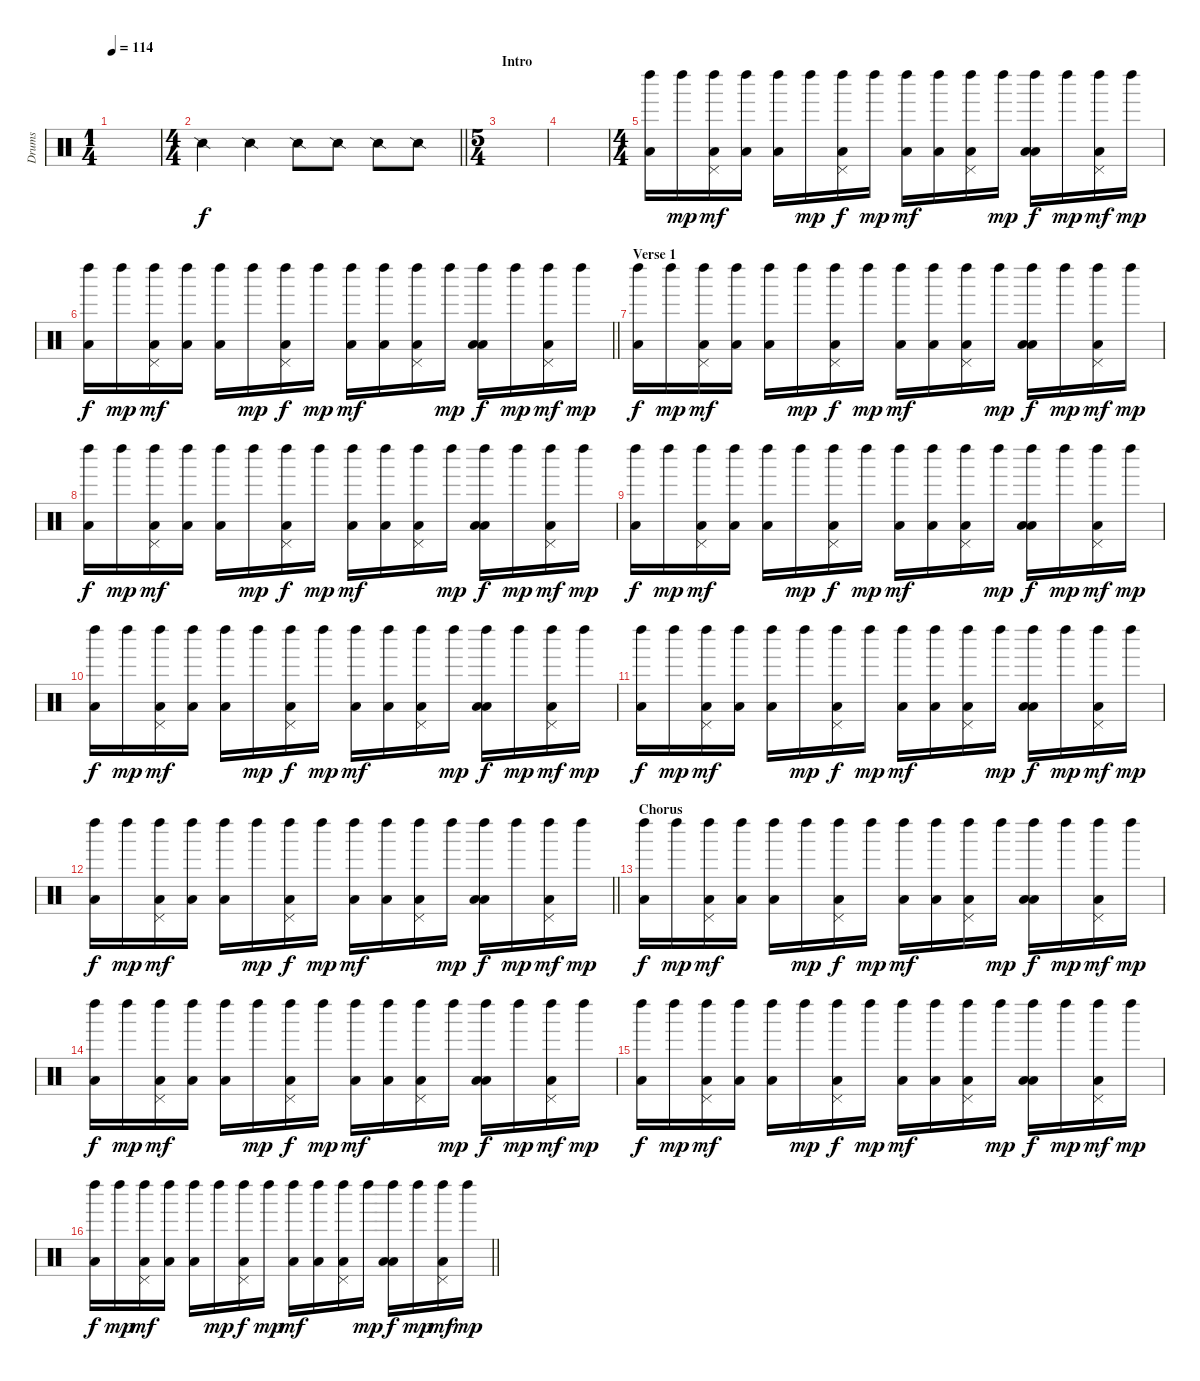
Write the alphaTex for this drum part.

\track ("Drums" "Drums") {instrument percussion}
\staff {score}
\articulation defaults
\ts (1 4)
\tempo 114
\clef neutral
\ks c
|
\ts (4 4)
\barLineRight lightlight "Snare (side stick) 2".4 "Snare (side stick) 2".4 "Snare (side stick) 2".8 "Snare (side stick) 2".8 "Snare (side stick) 2".8 "Snare (side stick) 2".8
|
\ts (5 4)
\section ("" "Intro")
|
|
\ts (4 4)
("Left Maraca (hit)" "Low Floor Tom (hit)").16 "Left Maraca (hit)".16{dy mp} ("Pedal Hi-Hat (hit)" "Left Maraca (hit)" "Low Floor Tom (hit)").16{dy mf} ("Left Maraca (hit)" "Low Tom (hit)").16 ("Left Maraca (hit)" "Low Floor Tom (hit)").16 "Left Maraca (hit)".16{dy mp} ("Pedal Hi-Hat (hit)" "Left Maraca (hit)" "Low Floor Tom (hit)").16{dy f} "Left Maraca (hit)".16{dy mp} ("Left Maraca (hit)" "Low Floor Tom (hit)").16{dy mf} ("Left Maraca (hit)" "Low Tom (hit)").16 ("Pedal Hi-Hat (hit)" "Left Maraca (hit)" "Low Floor Tom (hit)").16 "Left Maraca (hit)".16{dy mp} ("Left Maraca (hit)" "Low Tom (hit)" "Low Floor Tom (hit)").16{dy f} "Left Maraca (hit)".16{dy mp} ("Pedal Hi-Hat (hit)" "Left Maraca (hit)" "Low Floor Tom (hit)").16{dy mf} "Left Maraca (hit)".16{dy mp} |
\barLineRight lightlight
("Left Maraca (hit)" "Low Floor Tom (hit)").16{dy f} "Left Maraca (hit)".16{dy mp} ("Pedal Hi-Hat (hit)" "Left Maraca (hit)" "Low Floor Tom (hit)").16{dy mf} ("Left Maraca (hit)" "Low Tom (hit)").16 ("Left Maraca (hit)" "Low Floor Tom (hit)").16 "Left Maraca (hit)".16{dy mp} ("Pedal Hi-Hat (hit)" "Left Maraca (hit)" "Low Floor Tom (hit)").16{dy f} "Left Maraca (hit)".16{dy mp} ("Left Maraca (hit)" "Low Floor Tom (hit)").16{dy mf} ("Left Maraca (hit)" "Low Tom (hit)").16 ("Pedal Hi-Hat (hit)" "Left Maraca (hit)" "Low Floor Tom (hit)").16 "Left Maraca (hit)".16{dy mp} ("Left Maraca (hit)" "Low Tom (hit)" "Low Floor Tom (hit)").16{dy f} "Left Maraca (hit)".16{dy mp} ("Pedal Hi-Hat (hit)" "Left Maraca (hit)" "Low Floor Tom (hit)").16{dy mf} "Left Maraca (hit)".16{dy mp} |
\section ("" "Verse 1")
("Left Maraca (hit)" "Low Floor Tom (hit)").16{dy f} "Left Maraca (hit)".16{dy mp} ("Pedal Hi-Hat (hit)" "Left Maraca (hit)" "Low Floor Tom (hit)").16{dy mf} ("Left Maraca (hit)" "Low Tom (hit)").16 ("Left Maraca (hit)" "Low Floor Tom (hit)").16 "Left Maraca (hit)".16{dy mp} ("Pedal Hi-Hat (hit)" "Left Maraca (hit)" "Low Floor Tom (hit)").16{dy f} "Left Maraca (hit)".16{dy mp} ("Left Maraca (hit)" "Low Floor Tom (hit)").16{dy mf} ("Left Maraca (hit)" "Low Tom (hit)").16 ("Pedal Hi-Hat (hit)" "Left Maraca (hit)" "Low Floor Tom (hit)").16 "Left Maraca (hit)".16{dy mp} ("Left Maraca (hit)" "Low Tom (hit)" "Low Floor Tom (hit)").16{dy f} "Left Maraca (hit)".16{dy mp} ("Pedal Hi-Hat (hit)" "Left Maraca (hit)" "Low Floor Tom (hit)").16{dy mf} "Left Maraca (hit)".16{dy mp} |
("Left Maraca (hit)" "Low Floor Tom (hit)").16{dy f} "Left Maraca (hit)".16{dy mp} ("Pedal Hi-Hat (hit)" "Left Maraca (hit)" "Low Floor Tom (hit)").16{dy mf} ("Left Maraca (hit)" "Low Tom (hit)").16 ("Left Maraca (hit)" "Low Floor Tom (hit)").16 "Left Maraca (hit)".16{dy mp} ("Pedal Hi-Hat (hit)" "Left Maraca (hit)" "Low Floor Tom (hit)").16{dy f} "Left Maraca (hit)".16{dy mp} ("Left Maraca (hit)" "Low Floor Tom (hit)").16{dy mf} ("Left Maraca (hit)" "Low Tom (hit)").16 ("Pedal Hi-Hat (hit)" "Left Maraca (hit)" "Low Floor Tom (hit)").16 "Left Maraca (hit)".16{dy mp} ("Left Maraca (hit)" "Low Tom (hit)" "Low Floor Tom (hit)").16{dy f} "Left Maraca (hit)".16{dy mp} ("Pedal Hi-Hat (hit)" "Left Maraca (hit)" "Low Floor Tom (hit)").16{dy mf} "Left Maraca (hit)".16{dy mp} |
("Left Maraca (hit)" "Low Floor Tom (hit)").16{dy f} "Left Maraca (hit)".16{dy mp} ("Pedal Hi-Hat (hit)" "Left Maraca (hit)" "Low Floor Tom (hit)").16{dy mf} ("Left Maraca (hit)" "Low Tom (hit)").16 ("Left Maraca (hit)" "Low Floor Tom (hit)").16 "Left Maraca (hit)".16{dy mp} ("Pedal Hi-Hat (hit)" "Left Maraca (hit)" "Low Floor Tom (hit)").16{dy f} "Left Maraca (hit)".16{dy mp} ("Left Maraca (hit)" "Low Floor Tom (hit)").16{dy mf} ("Left Maraca (hit)" "Low Tom (hit)").16 ("Pedal Hi-Hat (hit)" "Left Maraca (hit)" "Low Floor Tom (hit)").16 "Left Maraca (hit)".16{dy mp} ("Left Maraca (hit)" "Low Tom (hit)" "Low Floor Tom (hit)").16{dy f} "Left Maraca (hit)".16{dy mp} ("Pedal Hi-Hat (hit)" "Left Maraca (hit)" "Low Floor Tom (hit)").16{dy mf} "Left Maraca (hit)".16{dy mp} |
("Left Maraca (hit)" "Low Floor Tom (hit)").16{dy f} "Left Maraca (hit)".16{dy mp} ("Pedal Hi-Hat (hit)" "Left Maraca (hit)" "Low Floor Tom (hit)").16{dy mf} ("Left Maraca (hit)" "Low Tom (hit)").16 ("Left Maraca (hit)" "Low Floor Tom (hit)").16 "Left Maraca (hit)".16{dy mp} ("Pedal Hi-Hat (hit)" "Left Maraca (hit)" "Low Floor Tom (hit)").16{dy f} "Left Maraca (hit)".16{dy mp} ("Left Maraca (hit)" "Low Floor Tom (hit)").16{dy mf} ("Left Maraca (hit)" "Low Tom (hit)").16 ("Pedal Hi-Hat (hit)" "Left Maraca (hit)" "Low Floor Tom (hit)").16 "Left Maraca (hit)".16{dy mp} ("Left Maraca (hit)" "Low Tom (hit)" "Low Floor Tom (hit)").16{dy f} "Left Maraca (hit)".16{dy mp} ("Pedal Hi-Hat (hit)" "Left Maraca (hit)" "Low Floor Tom (hit)").16{dy mf} "Left Maraca (hit)".16{dy mp} |
("Left Maraca (hit)" "Low Floor Tom (hit)").16{dy f} "Left Maraca (hit)".16{dy mp} ("Pedal Hi-Hat (hit)" "Left Maraca (hit)" "Low Floor Tom (hit)").16{dy mf} ("Left Maraca (hit)" "Low Tom (hit)").16 ("Left Maraca (hit)" "Low Floor Tom (hit)").16 "Left Maraca (hit)".16{dy mp} ("Pedal Hi-Hat (hit)" "Left Maraca (hit)" "Low Floor Tom (hit)").16{dy f} "Left Maraca (hit)".16{dy mp} ("Left Maraca (hit)" "Low Floor Tom (hit)").16{dy mf} ("Left Maraca (hit)" "Low Tom (hit)").16 ("Pedal Hi-Hat (hit)" "Left Maraca (hit)" "Low Floor Tom (hit)").16 "Left Maraca (hit)".16{dy mp} ("Left Maraca (hit)" "Low Tom (hit)" "Low Floor Tom (hit)").16{dy f} "Left Maraca (hit)".16{dy mp} ("Pedal Hi-Hat (hit)" "Left Maraca (hit)" "Low Floor Tom (hit)").16{dy mf} "Left Maraca (hit)".16{dy mp} |
\barLineRight lightlight
("Left Maraca (hit)" "Low Floor Tom (hit)").16{dy f} "Left Maraca (hit)".16{dy mp} ("Pedal Hi-Hat (hit)" "Left Maraca (hit)" "Low Floor Tom (hit)").16{dy mf} ("Left Maraca (hit)" "Low Tom (hit)").16 ("Left Maraca (hit)" "Low Floor Tom (hit)").16 "Left Maraca (hit)".16{dy mp} ("Pedal Hi-Hat (hit)" "Left Maraca (hit)" "Low Floor Tom (hit)").16{dy f} "Left Maraca (hit)".16{dy mp} ("Left Maraca (hit)" "Low Floor Tom (hit)").16{dy mf} ("Left Maraca (hit)" "Low Tom (hit)").16 ("Pedal Hi-Hat (hit)" "Left Maraca (hit)" "Low Floor Tom (hit)").16 "Left Maraca (hit)".16{dy mp} ("Left Maraca (hit)" "Low Tom (hit)" "Low Floor Tom (hit)").16{dy f} "Left Maraca (hit)".16{dy mp} ("Pedal Hi-Hat (hit)" "Left Maraca (hit)" "Low Floor Tom (hit)").16{dy mf} "Left Maraca (hit)".16{dy mp} |
\section ("" "Chorus")
("Left Maraca (hit)" "Low Floor Tom (hit)").16{dy f} "Left Maraca (hit)".16{dy mp} ("Pedal Hi-Hat (hit)" "Left Maraca (hit)" "Low Floor Tom (hit)").16{dy mf} ("Left Maraca (hit)" "Low Tom (hit)").16 ("Left Maraca (hit)" "Low Floor Tom (hit)").16 "Left Maraca (hit)".16{dy mp} ("Pedal Hi-Hat (hit)" "Left Maraca (hit)" "Low Floor Tom (hit)").16{dy f} "Left Maraca (hit)".16{dy mp} ("Left Maraca (hit)" "Low Floor Tom (hit)").16{dy mf} ("Left Maraca (hit)" "Low Tom (hit)").16 ("Pedal Hi-Hat (hit)" "Left Maraca (hit)" "Low Floor Tom (hit)").16 "Left Maraca (hit)".16{dy mp} ("Left Maraca (hit)" "Low Tom (hit)" "Low Floor Tom (hit)").16{dy f} "Left Maraca (hit)".16{dy mp} ("Pedal Hi-Hat (hit)" "Left Maraca (hit)" "Low Floor Tom (hit)").16{dy mf} "Left Maraca (hit)".16{dy mp} |
("Left Maraca (hit)" "Low Floor Tom (hit)").16{dy f} "Left Maraca (hit)".16{dy mp} ("Pedal Hi-Hat (hit)" "Left Maraca (hit)" "Low Floor Tom (hit)").16{dy mf} ("Left Maraca (hit)" "Low Tom (hit)").16 ("Left Maraca (hit)" "Low Floor Tom (hit)").16 "Left Maraca (hit)".16{dy mp} ("Pedal Hi-Hat (hit)" "Left Maraca (hit)" "Low Floor Tom (hit)").16{dy f} "Left Maraca (hit)".16{dy mp} ("Left Maraca (hit)" "Low Floor Tom (hit)").16{dy mf} ("Left Maraca (hit)" "Low Tom (hit)").16 ("Pedal Hi-Hat (hit)" "Left Maraca (hit)" "Low Floor Tom (hit)").16 "Left Maraca (hit)".16{dy mp} ("Left Maraca (hit)" "Low Tom (hit)" "Low Floor Tom (hit)").16{dy f} "Left Maraca (hit)".16{dy mp} ("Pedal Hi-Hat (hit)" "Left Maraca (hit)" "Low Floor Tom (hit)").16{dy mf} "Left Maraca (hit)".16{dy mp} |
("Left Maraca (hit)" "Low Floor Tom (hit)").16{dy f} "Left Maraca (hit)".16{dy mp} ("Pedal Hi-Hat (hit)" "Left Maraca (hit)" "Low Floor Tom (hit)").16{dy mf} ("Left Maraca (hit)" "Low Tom (hit)").16 ("Left Maraca (hit)" "Low Floor Tom (hit)").16 "Left Maraca (hit)".16{dy mp} ("Pedal Hi-Hat (hit)" "Left Maraca (hit)" "Low Floor Tom (hit)").16{dy f} "Left Maraca (hit)".16{dy mp} ("Left Maraca (hit)" "Low Floor Tom (hit)").16{dy mf} ("Left Maraca (hit)" "Low Tom (hit)").16 ("Pedal Hi-Hat (hit)" "Left Maraca (hit)" "Low Floor Tom (hit)").16 "Left Maraca (hit)".16{dy mp} ("Left Maraca (hit)" "Low Tom (hit)" "Low Floor Tom (hit)").16{dy f} "Left Maraca (hit)".16{dy mp} ("Pedal Hi-Hat (hit)" "Left Maraca (hit)" "Low Floor Tom (hit)").16{dy mf} "Left Maraca (hit)".16{dy mp} |
\barLineRight lightlight
("Left Maraca (hit)" "Low Floor Tom (hit)").16{dy f} "Left Maraca (hit)".16{dy mp} ("Pedal Hi-Hat (hit)" "Left Maraca (hit)" "Low Floor Tom (hit)").16{dy mf} ("Left Maraca (hit)" "Low Tom (hit)").16 ("Left Maraca (hit)" "Low Floor Tom (hit)").16 "Left Maraca (hit)".16{dy mp} ("Pedal Hi-Hat (hit)" "Left Maraca (hit)" "Low Floor Tom (hit)").16{dy f} "Left Maraca (hit)".16{dy mp} ("Left Maraca (hit)" "Low Floor Tom (hit)").16{dy mf} ("Left Maraca (hit)" "Low Tom (hit)").16 ("Pedal Hi-Hat (hit)" "Left Maraca (hit)" "Low Floor Tom (hit)").16 "Left Maraca (hit)".16{dy mp} ("Left Maraca (hit)" "Low Tom (hit)" "Low Floor Tom (hit)").16{dy f} "Left Maraca (hit)".16{dy mp} ("Pedal Hi-Hat (hit)" "Left Maraca (hit)" "Low Floor Tom (hit)").16{dy mf} "Left Maraca (hit)".16{dy mp}
